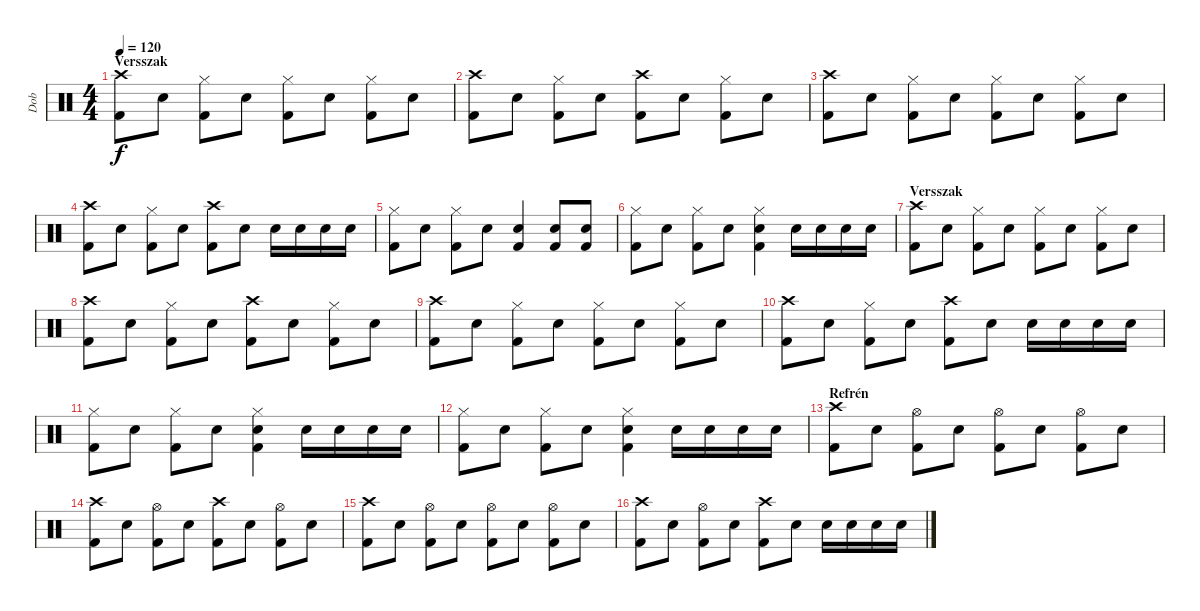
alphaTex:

\track ("Dob" "Dob") {instrument percussion}
\staff {score}
\articulation defaults
\ts (4 4)
\section ("" "Versszak")
\tempo 120
\clef neutral
\ks c
("Kick (hit) 2" "Crash high (hit)").8{dy f} "Snare (hit) 2".8 ("Kick (hit) 2" "Hi-Hat (closed)").8 "Snare (hit) 2".8 ("Kick (hit) 2" "Hi-Hat (closed)").8 "Snare (hit) 2".8 ("Kick (hit) 2" "Hi-Hat (closed)").8 "Snare (hit) 2".8 |
("Kick (hit) 2" "Crash high (hit)").8 "Snare (hit) 2".8 ("Kick (hit) 2" "Hi-Hat (closed)").8 "Snare (hit) 2".8 ("Kick (hit) 2" "Crash high (hit)").8 "Snare (hit) 2".8 ("Kick (hit) 2" "Hi-Hat (closed)").8 "Snare (hit) 2".8 |
("Kick (hit) 2" "Crash high (hit)").8 "Snare (hit) 2".8 ("Kick (hit) 2" "Hi-Hat (closed)").8 "Snare (hit) 2".8 ("Kick (hit) 2" "Hi-Hat (closed)").8 "Snare (hit) 2".8 ("Kick (hit) 2" "Hi-Hat (closed)").8 "Snare (hit) 2".8 |
("Kick (hit) 2" "Crash high (hit)").8 "Snare (hit) 2".8 ("Kick (hit) 2" "Hi-Hat (closed)").8 "Snare (hit) 2".8 ("Kick (hit) 2" "Crash high (hit)").8 "Snare (hit) 2".8 "Snare (hit) 2".16 "Snare (hit) 2".16 "Snare (hit) 2".16 "Snare (hit) 2".16 |
("Kick (hit) 2" "Hi-Hat (closed)").8 "Snare (hit) 2".8 ("Kick (hit) 2" "Hi-Hat (closed)").8 "Snare (hit) 2".8 ("Snare (hit) 2" "Kick (hit) 2").4 ("Snare (hit) 2" "Kick (hit) 2").8 ("Snare (hit) 2" "Kick (hit) 2").8 |
("Kick (hit) 2" "Hi-Hat (closed)").8 "Snare (hit) 2".8 ("Kick (hit) 2" "Hi-Hat (closed)").8 "Snare (hit) 2".8 ("Snare (hit) 2" "Hi-Hat (closed)" "Kick (hit) 2").4 "Snare (hit) 2".16 "Snare (hit) 2".16 "Snare (hit) 2".16 "Snare (hit) 2".16 |
\section ("" "Versszak")
("Kick (hit) 2" "Crash high (hit)").8 "Snare (hit) 2".8 ("Kick (hit) 2" "Hi-Hat (closed)").8 "Snare (hit) 2".8 ("Kick (hit) 2" "Hi-Hat (closed)").8 "Snare (hit) 2".8 ("Kick (hit) 2" "Hi-Hat (closed)").8 "Snare (hit) 2".8 |
("Kick (hit) 2" "Crash high (hit)").8 "Snare (hit) 2".8 ("Kick (hit) 2" "Hi-Hat (closed)").8 "Snare (hit) 2".8 ("Kick (hit) 2" "Crash high (hit)").8 "Snare (hit) 2".8 ("Kick (hit) 2" "Hi-Hat (closed)").8 "Snare (hit) 2".8 |
("Kick (hit) 2" "Crash high (hit)").8 "Snare (hit) 2".8 ("Kick (hit) 2" "Hi-Hat (closed)").8 "Snare (hit) 2".8 ("Kick (hit) 2" "Hi-Hat (closed)").8 "Snare (hit) 2".8 ("Kick (hit) 2" "Hi-Hat (closed)").8 "Snare (hit) 2".8 |
("Kick (hit) 2" "Crash high (hit)").8 "Snare (hit) 2".8 ("Kick (hit) 2" "Hi-Hat (closed)").8 "Snare (hit) 2".8 ("Kick (hit) 2" "Crash high (hit)").8 "Snare (hit) 2".8 "Snare (hit) 2".16 "Snare (hit) 2".16 "Snare (hit) 2".16 "Snare (hit) 2".16 |
("Kick (hit) 2" "Hi-Hat (closed)").8 "Snare (hit) 2".8 ("Kick (hit) 2" "Hi-Hat (closed)").8 "Snare (hit) 2".8 ("Snare (hit) 2" "Hi-Hat (closed)" "Kick (hit) 2").4 "Snare (hit) 2".16 "Snare (hit) 2".16 "Snare (hit) 2".16 "Snare (hit) 2".16 |
("Kick (hit) 2" "Hi-Hat (closed)").8 "Snare (hit) 2".8 ("Kick (hit) 2" "Hi-Hat (closed)").8 "Snare (hit) 2".8 ("Snare (hit) 2" "Hi-Hat (closed)" "Kick (hit) 2").4 "Snare (hit) 2".16 "Snare (hit) 2".16 "Snare (hit) 2".16 "Snare (hit) 2".16 |
\section ("" "Refrén")
("Kick (hit) 2" "Crash high (hit)").8 "Snare (hit) 2".8 ("Kick (hit) 2" "Hi-Hat (open)").8 "Snare (hit) 2".8 ("Kick (hit) 2" "Hi-Hat (open)").8 "Snare (hit) 2".8 ("Kick (hit) 2" "Hi-Hat (open)").8 "Snare (hit) 2".8 |
("Kick (hit) 2" "Crash high (hit)").8 "Snare (hit) 2".8 ("Kick (hit) 2" "Hi-Hat (open)").8 "Snare (hit) 2".8 ("Kick (hit) 2" "Crash high (hit)").8 "Snare (hit) 2".8 ("Kick (hit) 2" "Hi-Hat (open)").8 "Snare (hit) 2".8 |
("Kick (hit) 2" "Crash high (hit)").8 "Snare (hit) 2".8 ("Kick (hit) 2" "Hi-Hat (open)").8 "Snare (hit) 2".8 ("Kick (hit) 2" "Hi-Hat (open)").8 "Snare (hit) 2".8 ("Kick (hit) 2" "Hi-Hat (open)").8 "Snare (hit) 2".8 |
("Kick (hit) 2" "Crash high (hit)").8 "Snare (hit) 2".8 ("Kick (hit) 2" "Hi-Hat (open)").8 "Snare (hit) 2".8 ("Kick (hit) 2" "Crash high (hit)").8 "Snare (hit) 2".8 "Snare (hit) 2".16 "Snare (hit) 2".16 "Snare (hit) 2".16 "Snare (hit) 2".16
